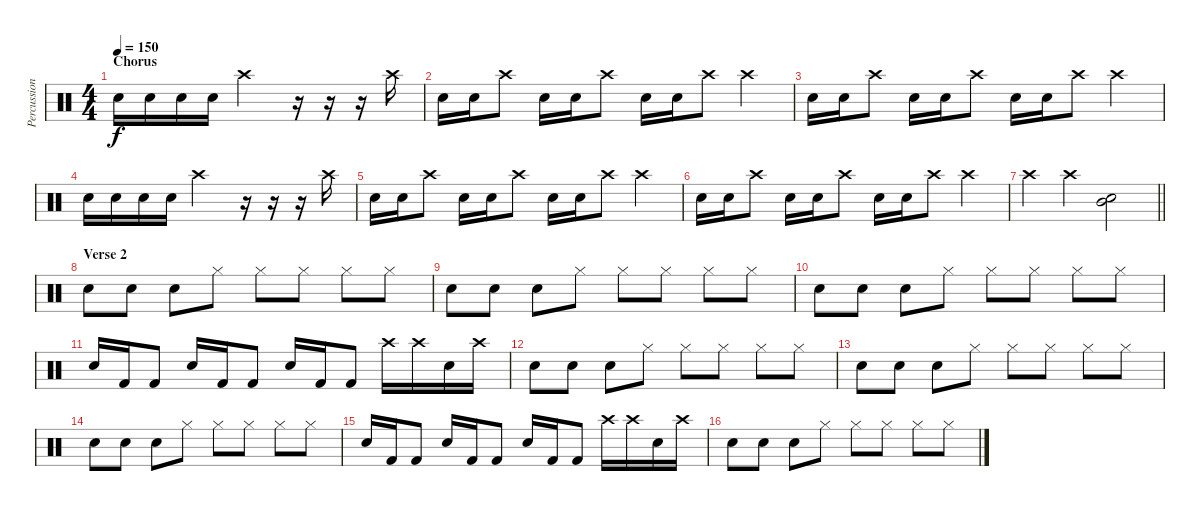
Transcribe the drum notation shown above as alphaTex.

\track ("Percussion" "Percussion") {instrument percussion}
\staff {score}
\articulation defaults
\ts (4 4)
\section ("" "Chorus")
\tempo 150
\clef neutral
\ks c "Snare (hit) 2".16{dy f} "Snare (hit) 2".16 "Snare (hit) 2".16 "Snare (hit) 2".16 "Crash high (hit)".2
r.16 r.16 r.16 "Crash high (hit)".16 |
"Snare (hit) 2".16 "Electric Snare (hit)".16 "Crash high (hit)".8 "Snare (hit) 2".16 "Electric Snare (hit)".16 "Crash high (hit)".8 "Snare (hit) 2".16 "Electric Snare (hit)".16 "Crash high (hit)".8 "Crash high (hit)".4 |
"Snare (hit) 2".16 "Electric Snare (hit)".16 "Crash high (hit)".8 "Snare (hit) 2".16 "Electric Snare (hit)".16 "Crash high (hit)".8 "Snare (hit) 2".16 "Electric Snare (hit)".16 "Crash high (hit)".8 "Crash high (hit)".4 |
"Snare (hit) 2".16 "Snare (hit) 2".16 "Snare (hit) 2".16 "Snare (hit) 2".16 "Crash high (hit)".2 r.16 r.16 r.16 "Crash high (hit)".16 |
"Snare (hit) 2".16 "Electric Snare (hit)".16 "Crash high (hit)".8 "Snare (hit) 2".16 "Electric Snare (hit)".16 "Crash high (hit)".8 "Snare (hit) 2".16 "Electric Snare (hit)".16 "Crash high (hit)".8 "Crash high (hit)".4 |
"Snare (hit) 2".16 "Electric Snare (hit)".16 "Crash high (hit)".8 "Snare (hit) 2".16 "Electric Snare (hit)".16 "Crash high (hit)".8 "Snare (hit) 2".16 "Electric Snare (hit)".16 "Crash high (hit)".8 "Crash high (hit)".4 |
\barLineRight lightlight "Crash high (hit)".4 "Crash high (hit)".4
("Electric Snare (hit)" "Mid Tom (hit)").2 |
\section ("" "Verse 2")
"Electric Snare (hit)".8 "Electric Snare (hit)".8 "Electric Snare (hit)".8 "Hi-Hat (closed)".8 "Hi-Hat (closed)".8 "Hi-Hat (closed)".8 "Hi-Hat (closed)".8 "Hi-Hat (closed)".8 |
"Electric Snare (hit)".8 "Electric Snare (hit)".8 "Electric Snare (hit)".8 "Hi-Hat (closed)".8 "Hi-Hat (closed)".8 "Hi-Hat (closed)".8 "Hi-Hat (closed)".8 "Hi-Hat (closed)".8 |
"Electric Snare (hit)".8 "Electric Snare (hit)".8 "Electric Snare (hit)".8 "Hi-Hat (closed)".8 "Hi-Hat (closed)".8 "Hi-Hat (closed)".8 "Hi-Hat (closed)".8 "Hi-Hat (closed)".8 |
"Electric Snare (hit)".16 "Kick (hit) 2".16 "Kick (hit) 2".8 "Electric Snare (hit)".16 "Kick (hit) 2".16 "Kick (hit) 2".8 "Electric Snare (hit)".16 "Kick (hit) 2".16 "Kick (hit) 2".8 "Crash high (hit)".16 "Crash high (hit)".16 "Snare (hit) 2".16 "Crash high (hit)".16 |
"Electric Snare (hit)".8 "Electric Snare (hit)".8 "Electric Snare (hit)".8 "Hi-Hat (closed)".8 "Hi-Hat (closed)".8 "Hi-Hat (closed)".8 "Hi-Hat (closed)".8 "Hi-Hat (closed)".8 |
"Electric Snare (hit)".8 "Electric Snare (hit)".8 "Electric Snare (hit)".8 "Hi-Hat (closed)".8 "Hi-Hat (closed)".8 "Hi-Hat (closed)".8 "Hi-Hat (closed)".8 "Hi-Hat (closed)".8 |
"Electric Snare (hit)".8 "Electric Snare (hit)".8 "Electric Snare (hit)".8 "Hi-Hat (closed)".8 "Hi-Hat (closed)".8 "Hi-Hat (closed)".8 "Hi-Hat (closed)".8 "Hi-Hat (closed)".8 |
"Electric Snare (hit)".16 "Kick (hit) 2".16 "Kick (hit) 2".8 "Electric Snare (hit)".16 "Kick (hit) 2".16 "Kick (hit) 2".8 "Electric Snare (hit)".16 "Kick (hit) 2".16 "Kick (hit) 2".8 "Crash high (hit)".16 "Crash high (hit)".16 "Snare (hit) 2".16 "Crash high (hit)".16 |
"Electric Snare (hit)".8 "Electric Snare (hit)".8 "Electric Snare (hit)".8 "Hi-Hat (closed)".8 "Hi-Hat (closed)".8 "Hi-Hat (closed)".8 "Hi-Hat (closed)".8 "Hi-Hat (closed)".8
